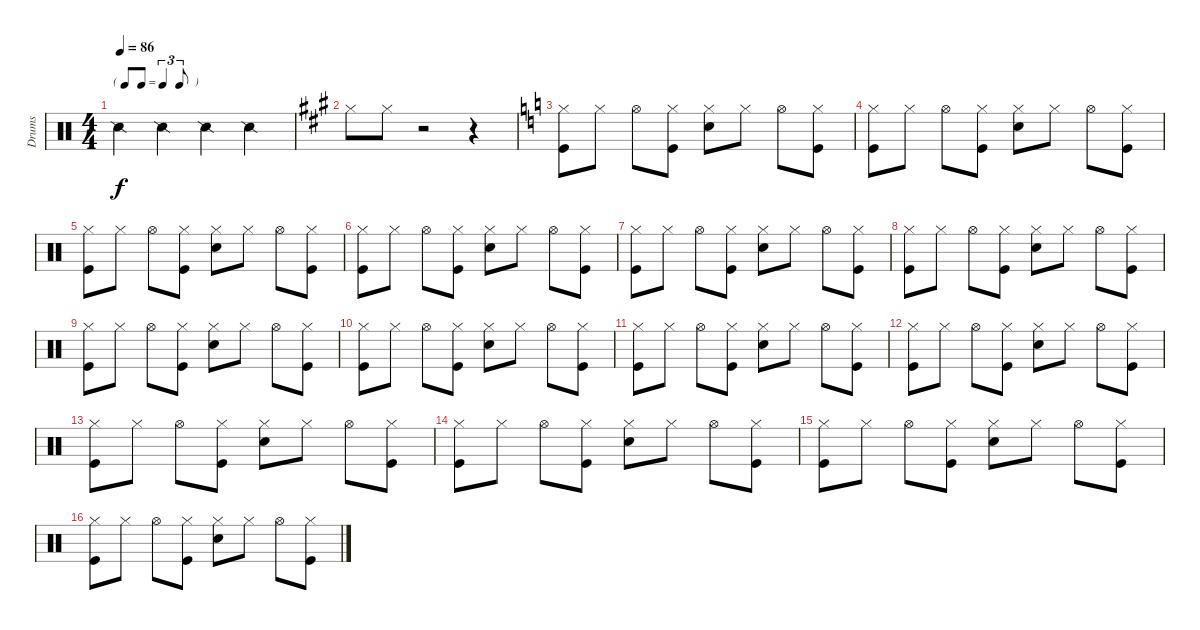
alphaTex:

\track ("Drums" "Drums") {instrument percussion}
\staff {score}
\articulation defaults
\ts (4 4)
\tf triplet8th
\tempo 86
\clef neutral
\ks c "Snare (side stick) 2".4{dy f} "Snare (side stick) 2".4 "Snare (side stick) 2".4 "Snare (side stick) 2".4
|
\ks a "Hi-Hat (closed)".8 "Hi-Hat (closed)".8
r.2 r.4 |
\ks c
("Hi-Hat (closed)" "Kick (hit)").8 "Hi-Hat (closed)".8 "Hi-Hat (open)".8 ("Hi-Hat (closed)" "Kick (hit)").8 ("Hi-Hat (closed)" "Snare (hit) 2").8 "Hi-Hat (closed)".8 "Hi-Hat (open)".8 ("Hi-Hat (closed)" "Kick (hit)").8 |
("Hi-Hat (closed)" "Kick (hit)").8 "Hi-Hat (closed)".8 "Hi-Hat (open)".8 ("Hi-Hat (closed)" "Kick (hit)").8 ("Hi-Hat (closed)" "Snare (hit) 2").8 "Hi-Hat (closed)".8 "Hi-Hat (open)".8 ("Hi-Hat (closed)" "Kick (hit)").8 |
("Hi-Hat (closed)" "Kick (hit)").8 "Hi-Hat (closed)".8 "Hi-Hat (open)".8 ("Hi-Hat (closed)" "Kick (hit)").8 ("Hi-Hat (closed)" "Snare (hit) 2").8 "Hi-Hat (closed)".8 "Hi-Hat (open)".8 ("Hi-Hat (closed)" "Kick (hit)").8 |
("Hi-Hat (closed)" "Kick (hit)").8 "Hi-Hat (closed)".8 "Hi-Hat (open)".8 ("Hi-Hat (closed)" "Kick (hit)").8 ("Hi-Hat (closed)" "Snare (hit) 2").8 "Hi-Hat (closed)".8 "Hi-Hat (open)".8 ("Hi-Hat (closed)" "Kick (hit)").8 |
("Hi-Hat (closed)" "Kick (hit)").8 "Hi-Hat (closed)".8 "Hi-Hat (open)".8 ("Hi-Hat (closed)" "Kick (hit)").8 ("Hi-Hat (closed)" "Snare (hit) 2").8 "Hi-Hat (closed)".8 "Hi-Hat (open)".8 ("Hi-Hat (closed)" "Kick (hit)").8 |
("Hi-Hat (closed)" "Kick (hit)").8 "Hi-Hat (closed)".8 "Hi-Hat (open)".8 ("Hi-Hat (closed)" "Kick (hit)").8 ("Hi-Hat (closed)" "Snare (hit) 2").8 "Hi-Hat (closed)".8 "Hi-Hat (open)".8 ("Hi-Hat (closed)" "Kick (hit)").8 |
("Hi-Hat (closed)" "Kick (hit)").8 "Hi-Hat (closed)".8 "Hi-Hat (open)".8 ("Hi-Hat (closed)" "Kick (hit)").8 ("Hi-Hat (closed)" "Snare (hit) 2").8 "Hi-Hat (closed)".8 "Hi-Hat (open)".8 ("Hi-Hat (closed)" "Kick (hit)").8 |
("Hi-Hat (closed)" "Kick (hit)").8 "Hi-Hat (closed)".8 "Hi-Hat (open)".8 ("Hi-Hat (closed)" "Kick (hit)").8 ("Hi-Hat (closed)" "Snare (hit) 2").8 "Hi-Hat (closed)".8 "Hi-Hat (open)".8 ("Hi-Hat (closed)" "Kick (hit)").8 |
("Hi-Hat (closed)" "Kick (hit)").8 "Hi-Hat (closed)".8 "Hi-Hat (open)".8 ("Hi-Hat (closed)" "Kick (hit)").8 ("Hi-Hat (closed)" "Snare (hit) 2").8 "Hi-Hat (closed)".8 "Hi-Hat (open)".8 ("Hi-Hat (closed)" "Kick (hit)").8 |
("Hi-Hat (closed)" "Kick (hit)").8 "Hi-Hat (closed)".8 "Hi-Hat (open)".8 ("Hi-Hat (closed)" "Kick (hit)").8 ("Hi-Hat (closed)" "Snare (hit) 2").8 "Hi-Hat (closed)".8 "Hi-Hat (open)".8 ("Hi-Hat (closed)" "Kick (hit)").8 |
("Hi-Hat (closed)" "Kick (hit)").8 "Hi-Hat (closed)".8 "Hi-Hat (open)".8 ("Hi-Hat (closed)" "Kick (hit)").8 ("Hi-Hat (closed)" "Snare (hit) 2").8 "Hi-Hat (closed)".8 "Hi-Hat (open)".8 ("Hi-Hat (closed)" "Kick (hit)").8 |
("Hi-Hat (closed)" "Kick (hit)").8 "Hi-Hat (closed)".8 "Hi-Hat (open)".8 ("Hi-Hat (closed)" "Kick (hit)").8 ("Hi-Hat (closed)" "Snare (hit) 2").8 "Hi-Hat (closed)".8 "Hi-Hat (open)".8 ("Hi-Hat (closed)" "Kick (hit)").8 |
("Hi-Hat (closed)" "Kick (hit)").8 "Hi-Hat (closed)".8 "Hi-Hat (open)".8 ("Hi-Hat (closed)" "Kick (hit)").8 ("Hi-Hat (closed)" "Snare (hit) 2").8 "Hi-Hat (closed)".8 "Hi-Hat (open)".8 ("Hi-Hat (closed)" "Kick (hit)").8 |
("Hi-Hat (closed)" "Kick (hit)").8 "Hi-Hat (closed)".8 "Hi-Hat (open)".8 ("Hi-Hat (closed)" "Kick (hit)").8 ("Hi-Hat (closed)" "Snare (hit) 2").8 "Hi-Hat (closed)".8 "Hi-Hat (open)".8 ("Hi-Hat (closed)" "Kick (hit)").8
